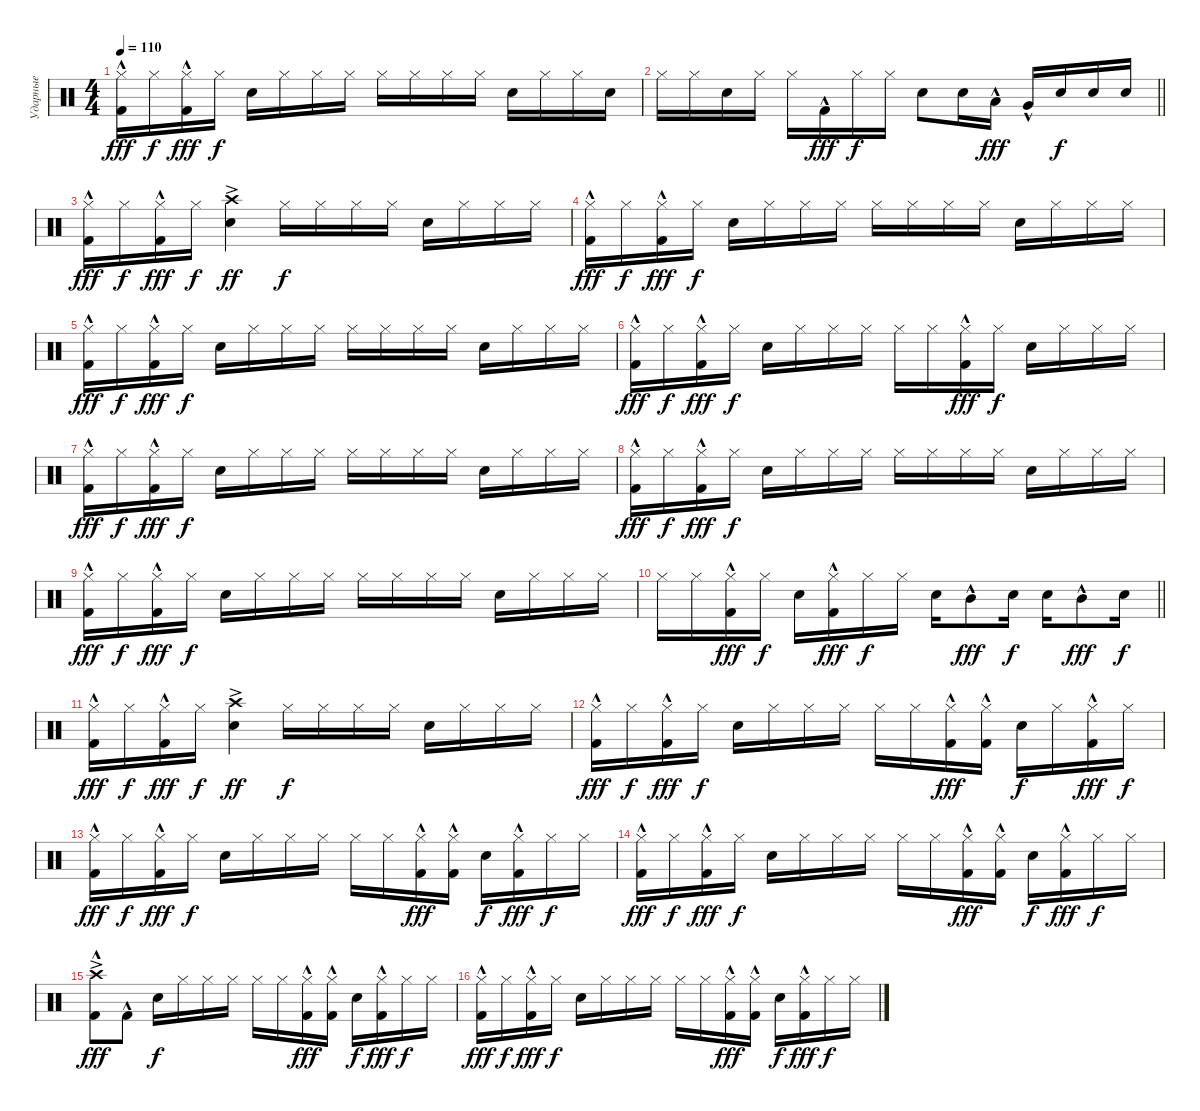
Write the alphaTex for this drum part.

\track ("Ударные" "Ударные") {instrument percussion}
\staff {score}
\articulation defaults
\ts (4 4)
\tempo 110
\clef neutral
\ks c
("Hi-Hat (closed)" "Kick (hit) 2"{hac}).16{dy fff} "Hi-Hat (closed)".16{dy f} ("Hi-Hat (closed)" "Kick (hit) 2"{hac}).16{dy fff} "Hi-Hat (closed)".16{dy f} "Snare (hit) 2".16 "Hi-Hat (closed)".16 "Hi-Hat (closed)".16 "Hi-Hat (closed)".16 "Hi-Hat (closed)".16 "Hi-Hat (closed)".16 "Hi-Hat (closed)".16 "Hi-Hat (closed)".16 "Snare (hit) 2".16 "Hi-Hat (closed)".16 "Hi-Hat (closed)".16 "Snare (hit) 2".16 |
\barLineRight lightlight "Hi-Hat (closed)".16 "Hi-Hat (closed)".16 "Snare (hit) 2".16 "Hi-Hat (closed)".16 "Hi-Hat (closed)".16 "Kick (hit) 2"{hac}.16{dy fff} "Hi-Hat (closed)".16{dy f} "Hi-Hat (closed)".16 "Snare (hit) 2".8 "Snare (hit) 2".16 "Low Tom (hit)"{hac}.16{dy fff} "Very Low Tom (hit)"{hac}.16 "Snare (hit) 2".16{dy f} "Snare (hit) 2".16 "Snare (hit) 2".16
|
\section ("" "")
("Hi-Hat (closed)" "Kick (hit) 2"{hac}).16{dy fff} "Hi-Hat (closed)".16{dy f} ("Hi-Hat (closed)" "Kick (hit) 2"{hac}).16{dy fff} "Hi-Hat (closed)".16{dy f} ("Crash high (hit)"{ac} "Snare (hit) 2").4{dy ff} "Hi-Hat (closed)".16{dy f} "Hi-Hat (closed)".16 "Hi-Hat (closed)".16 "Hi-Hat (closed)".16 "Snare (hit) 2".16 "Hi-Hat (closed)".16 "Hi-Hat (closed)".16 "Hi-Hat (closed)".16 |
("Hi-Hat (closed)" "Kick (hit) 2"{hac}).16{dy fff} "Hi-Hat (closed)".16{dy f} ("Hi-Hat (closed)" "Kick (hit) 2"{hac}).16{dy fff} "Hi-Hat (closed)".16{dy f} "Snare (hit) 2".16 "Hi-Hat (closed)".16 "Hi-Hat (closed)".16 "Hi-Hat (closed)".16 "Hi-Hat (closed)".16 "Hi-Hat (closed)".16 "Hi-Hat (closed)".16 "Hi-Hat (closed)".16 "Snare (hit) 2".16 "Hi-Hat (closed)".16 "Hi-Hat (closed)".16 "Hi-Hat (closed)".16 |
("Hi-Hat (closed)" "Kick (hit) 2"{hac}).16{dy fff} "Hi-Hat (closed)".16{dy f} ("Hi-Hat (closed)" "Kick (hit) 2"{hac}).16{dy fff} "Hi-Hat (closed)".16{dy f} "Snare (hit) 2".16 "Hi-Hat (closed)".16 "Hi-Hat (closed)".16 "Hi-Hat (closed)".16 "Hi-Hat (closed)".16 "Hi-Hat (closed)".16 "Hi-Hat (closed)".16 "Hi-Hat (closed)".16 "Snare (hit) 2".16 "Hi-Hat (closed)".16 "Hi-Hat (closed)".16 "Hi-Hat (closed)".16 |
("Hi-Hat (closed)" "Kick (hit) 2"{hac}).16{dy fff} "Hi-Hat (closed)".16{dy f} ("Hi-Hat (closed)" "Kick (hit) 2"{hac}).16{dy fff} "Hi-Hat (closed)".16{dy f} "Snare (hit) 2".16 "Hi-Hat (closed)".16 "Hi-Hat (closed)".16 "Hi-Hat (closed)".16 "Hi-Hat (closed)".16 "Hi-Hat (closed)".16 ("Hi-Hat (closed)" "Kick (hit) 2"{hac}).16{dy fff} "Hi-Hat (closed)".16{dy f} "Snare (hit) 2".16 "Hi-Hat (closed)".16 "Hi-Hat (closed)".16 "Hi-Hat (closed)".16 |
("Hi-Hat (closed)" "Kick (hit) 2"{hac}).16{dy fff} "Hi-Hat (closed)".16{dy f} ("Hi-Hat (closed)" "Kick (hit) 2"{hac}).16{dy fff} "Hi-Hat (closed)".16{dy f} "Snare (hit) 2".16 "Hi-Hat (closed)".16 "Hi-Hat (closed)".16 "Hi-Hat (closed)".16 "Hi-Hat (closed)".16 "Hi-Hat (closed)".16 "Hi-Hat (closed)".16 "Hi-Hat (closed)".16 "Snare (hit) 2".16 "Hi-Hat (closed)".16 "Hi-Hat (closed)".16 "Hi-Hat (closed)".16 |
("Hi-Hat (closed)" "Kick (hit) 2"{hac}).16{dy fff} "Hi-Hat (closed)".16{dy f} ("Hi-Hat (closed)" "Kick (hit) 2"{hac}).16{dy fff} "Hi-Hat (closed)".16{dy f} "Snare (hit) 2".16 "Hi-Hat (closed)".16 "Hi-Hat (closed)".16 "Hi-Hat (closed)".16 "Hi-Hat (closed)".16 "Hi-Hat (closed)".16 "Hi-Hat (closed)".16 "Hi-Hat (closed)".16 "Snare (hit) 2".16 "Hi-Hat (closed)".16 "Hi-Hat (closed)".16 "Hi-Hat (closed)".16 |
("Hi-Hat (closed)" "Kick (hit) 2"{hac}).16{dy fff} "Hi-Hat (closed)".16{dy f} ("Hi-Hat (closed)" "Kick (hit) 2"{hac}).16{dy fff} "Hi-Hat (closed)".16{dy f} "Snare (hit) 2".16 "Hi-Hat (closed)".16 "Hi-Hat (closed)".16 "Hi-Hat (closed)".16 "Hi-Hat (closed)".16 "Hi-Hat (closed)".16 "Hi-Hat (closed)".16 "Hi-Hat (closed)".16 "Snare (hit) 2".16 "Hi-Hat (closed)".16 "Hi-Hat (closed)".16 "Hi-Hat (closed)".16 |
\barLineRight lightlight "Hi-Hat (closed)".16 "Hi-Hat (closed)".16
("Hi-Hat (closed)" "Kick (hit) 2"{hac}).16{dy fff} "Hi-Hat (closed)".16{dy f} "Snare (hit) 2".16 ("Hi-Hat (closed)" "Kick (hit) 2"{hac}).16{dy fff} "Hi-Hat (closed)".16{dy f} "Hi-Hat (closed)".16 "Snare (hit) 2".16 "Mid Tom (hit)"{hac}.8{dy fff} "Snare (hit) 2".16{dy f} "Snare (hit) 2".16 "Mid Tom (hit)"{hac}.8{dy fff} "Snare (hit) 2".16{dy f} |
("Hi-Hat (closed)" "Kick (hit) 2"{hac}).16{dy fff} "Hi-Hat (closed)".16{dy f} ("Hi-Hat (closed)" "Kick (hit) 2"{hac}).16{dy fff} "Hi-Hat (closed)".16{dy f} ("Crash high (hit)"{ac} "Snare (hit) 2").4{dy ff} "Hi-Hat (closed)".16{dy f} "Hi-Hat (closed)".16 "Hi-Hat (closed)".16 "Hi-Hat (closed)".16 "Snare (hit) 2".16 "Hi-Hat (closed)".16 "Hi-Hat (closed)".16 "Hi-Hat (closed)".16 |
("Hi-Hat (closed)" "Kick (hit) 2"{hac}).16{dy fff} "Hi-Hat (closed)".16{dy f} ("Hi-Hat (closed)" "Kick (hit) 2"{hac}).16{dy fff} "Hi-Hat (closed)".16{dy f} "Snare (hit) 2".16 "Hi-Hat (closed)".16 "Hi-Hat (closed)".16 "Hi-Hat (closed)".16 "Hi-Hat (closed)".16 "Hi-Hat (closed)".16 ("Hi-Hat (closed)" "Kick (hit) 2"{hac}).16{dy fff} ("Hi-Hat (closed)" "Kick (hit) 2"{hac}).16 "Snare (hit) 2".16{dy f} "Hi-Hat (closed)".16 ("Hi-Hat (closed)" "Kick (hit) 2"{hac}).16{dy fff} "Hi-Hat (closed)".16{dy f} |
("Hi-Hat (closed)" "Kick (hit) 2"{hac}).16{dy fff} "Hi-Hat (closed)".16{dy f} ("Hi-Hat (closed)" "Kick (hit) 2"{hac}).16{dy fff} "Hi-Hat (closed)".16{dy f} "Snare (hit) 2".16 "Hi-Hat (closed)".16 "Hi-Hat (closed)".16 "Hi-Hat (closed)".16 "Hi-Hat (closed)".16 "Hi-Hat (closed)".16 ("Hi-Hat (closed)" "Kick (hit) 2"{hac}).16{dy fff} ("Hi-Hat (closed)" "Kick (hit) 2"{hac}).16 "Snare (hit) 2".16{dy f} ("Hi-Hat (closed)" "Kick (hit) 2"{hac}).16{dy fff} "Hi-Hat (closed)".16{dy f} "Hi-Hat (closed)".16 |
("Hi-Hat (closed)" "Kick (hit) 2"{hac}).16{dy fff} "Hi-Hat (closed)".16{dy f} ("Hi-Hat (closed)" "Kick (hit) 2"{hac}).16{dy fff} "Hi-Hat (closed)".16{dy f} "Snare (hit) 2".16 "Hi-Hat (closed)".16 "Hi-Hat (closed)".16 "Hi-Hat (closed)".16 "Hi-Hat (closed)".16 "Hi-Hat (closed)".16 ("Hi-Hat (closed)" "Kick (hit) 2"{hac}).16{dy fff} ("Hi-Hat (closed)" "Kick (hit) 2"{hac}).16 "Snare (hit) 2".16{dy f} ("Hi-Hat (closed)" "Kick (hit) 2"{hac}).16{dy fff} "Hi-Hat (closed)".16{dy f} "Hi-Hat (closed)".16 |
("Crash high (hit)"{ac} "Kick (hit) 2"{hac}).8{dy fff} "Kick (hit) 2"{hac}.8 "Snare (hit) 2".16{dy f} "Hi-Hat (closed)".16 "Hi-Hat (closed)".16 "Hi-Hat (closed)".16 "Hi-Hat (closed)".16 "Hi-Hat (closed)".16 ("Hi-Hat (closed)" "Kick (hit) 2"{hac}).16{dy fff} ("Hi-Hat (closed)" "Kick (hit) 2"{hac}).16 "Snare (hit) 2".16{dy f} ("Hi-Hat (closed)" "Kick (hit) 2"{hac}).16{dy fff} "Hi-Hat (closed)".16{dy f} "Hi-Hat (closed)".16 |
("Hi-Hat (closed)" "Kick (hit) 2"{hac}).16{dy fff} "Hi-Hat (closed)".16{dy f} ("Hi-Hat (closed)" "Kick (hit) 2"{hac}).16{dy fff} "Hi-Hat (closed)".16{dy f} "Snare (hit) 2".16 "Hi-Hat (closed)".16 "Hi-Hat (closed)".16 "Hi-Hat (closed)".16 "Hi-Hat (closed)".16 "Hi-Hat (closed)".16 ("Hi-Hat (closed)" "Kick (hit) 2"{hac}).16{dy fff} ("Hi-Hat (closed)" "Kick (hit) 2"{hac}).16 "Snare (hit) 2".16{dy f} ("Hi-Hat (closed)" "Kick (hit) 2"{hac}).16{dy fff} "Hi-Hat (closed)".16{dy f} "Hi-Hat (closed)".16
